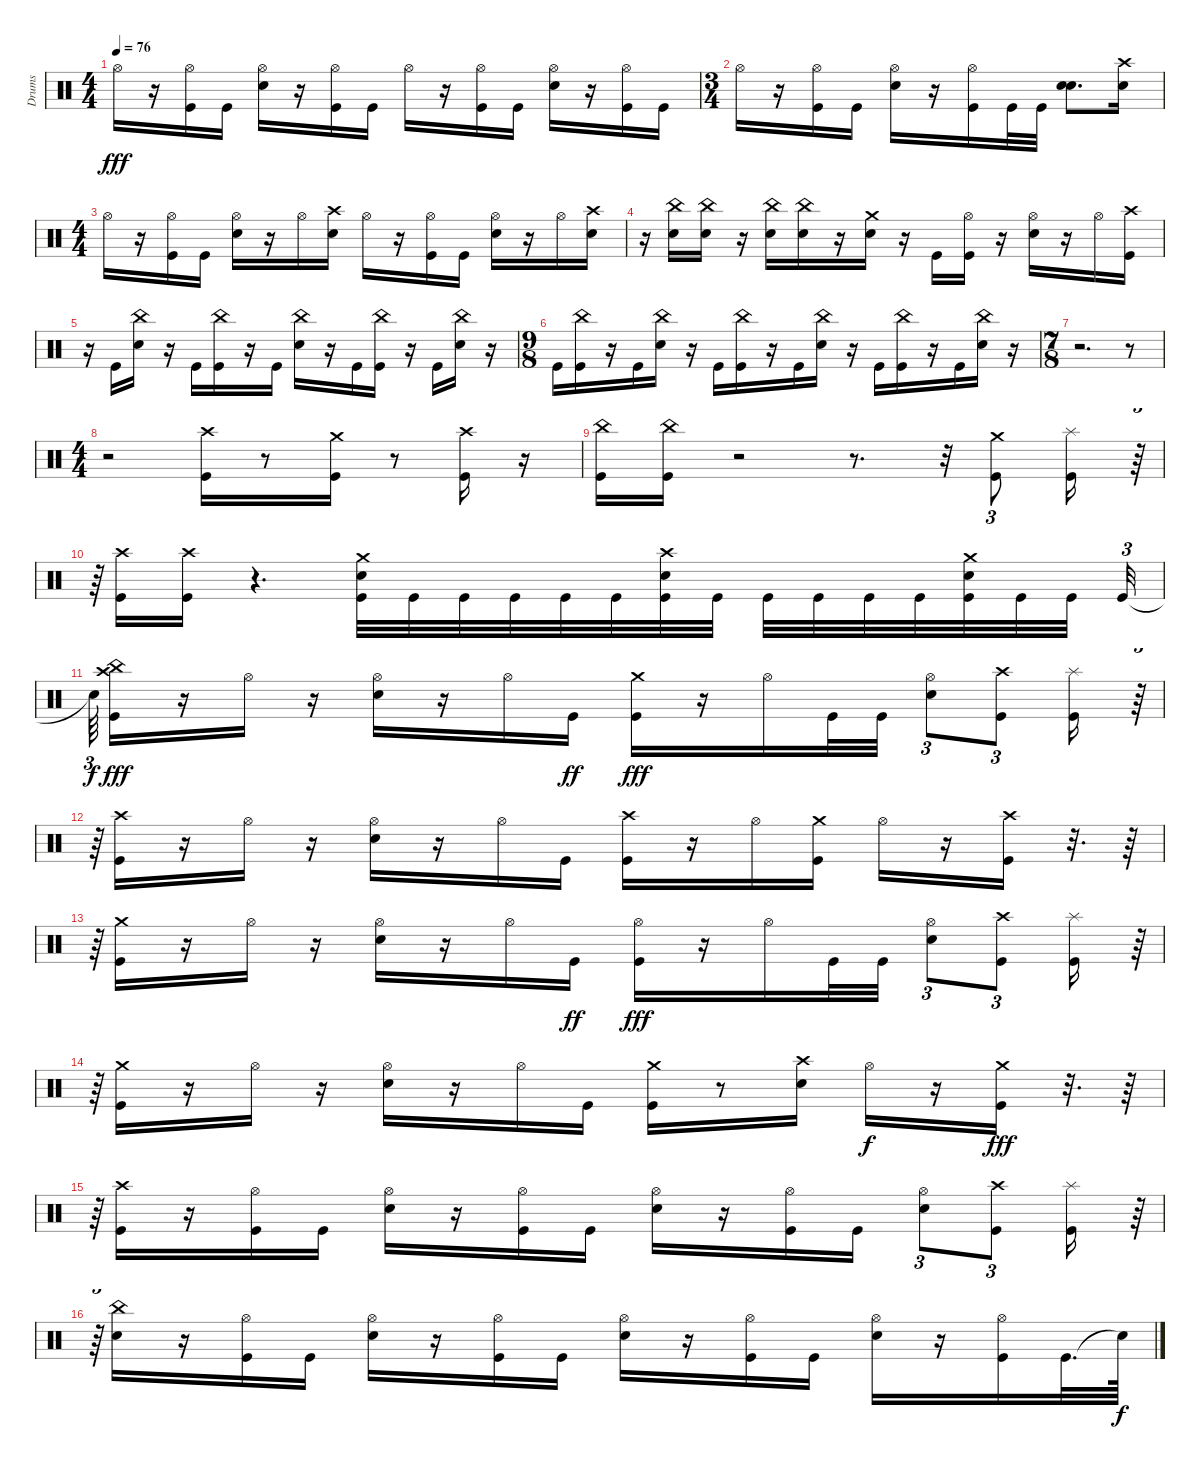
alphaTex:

\track ("Drums" "Drums") {instrument percussion}
\staff {score}
\articulation defaults
\ts (4 4)
\tempo 76
\clef neutral
\ks c "Hi-Hat (open)".16{dy fff}
r.16 ("Kick (hit)" "Hi-Hat (open)").16 "Kick (hit)".16 ("Electric Snare (hit)" "Hi-Hat (open)").16 r.16 ("Kick (hit)" "Hi-Hat (open)").16 "Kick (hit)".16 "Hi-Hat (open)".16 r.16 ("Kick (hit)" "Hi-Hat (open)").16 "Kick (hit)".16 ("Electric Snare (hit)" "Hi-Hat (open)").16 r.16 ("Kick (hit)" "Hi-Hat (open)").16 "Kick (hit)".16 |
\ts (3 4)
"Hi-Hat (open)".16 r.16 ("Kick (hit)" "Hi-Hat (open)").16 "Kick (hit)".16 ("Electric Snare (hit)" "Hi-Hat (open)").16 r.16 ("Kick (hit)" "Hi-Hat (open)").16 "Kick (hit)".32 "Kick (hit)".32 ("Electric Snare (hit)" "Electric Snare (hit)").8{d} ("Crash high (hit)" "Electric Snare (hit)").16 |
\ts (4 4)
"Hi-Hat (open)".16 r.16 ("Hi-Hat (open)" "Kick (hit)").16 "Kick (hit)".16 ("Hi-Hat (open)" "Electric Snare (hit)").16 r.16 "Hi-Hat (open)".16 ("Crash high (hit)" "Electric Snare (hit)").16 "Hi-Hat (open)".16 r.16 ("Kick (hit)" "Hi-Hat (open)").16 "Kick (hit)".16 ("Electric Snare (hit)" "Hi-Hat (open)").16 r.16 "Hi-Hat (open)".16 ("Crash high (hit)" "Electric Snare (hit)").16 |
r.16 ("China (hit)" "Electric Snare (hit)").16 ("China (hit)" "Electric Snare (hit)").16 r.16 ("China (hit)" "Electric Snare (hit)").16 ("China (hit)" "Electric Snare (hit)").16 r.16 ("Crash medium (hit)" "Electric Snare (hit)").16 r.16 "Kick (hit)".16 ("Kick (hit)" "Hi-Hat (open)").16 r.16 ("Electric Snare (hit)" "Hi-Hat (open)").16 r.16 "Hi-Hat (open)".16 ("Crash high (hit)" "Kick (hit)").16 |
r.16 "Kick (hit)".16 ("Electric Snare (hit)" "China (hit)").16 r.16 "Kick (hit)".16 ("China (hit)" "Kick (hit)").16 r.16 "Kick (hit)".16 ("China (hit)" "Electric Snare (hit)").16 r.16 "Kick (hit)".16 ("China (hit)" "Kick (hit)").16 r.16 "Kick (hit)".16 ("Electric Snare (hit)" "China (hit)").16 r.16 |
\ts (9 8)
"Kick (hit)".16 ("China (hit)" "Kick (hit)").16 r.16 "Kick (hit)".16 ("Electric Snare (hit)" "China (hit)").16 r.16 "Kick (hit)".16 ("Kick (hit)" "China (hit)").16 r.16 "Kick (hit)".16 ("Electric Snare (hit)" "China (hit)").16 r.16 "Kick (hit)".16 ("Kick (hit)" "China (hit)").16 r.16 "Kick (hit)".16 ("Electric Snare (hit)" "China (hit)").16 r.16 |
\ts (7 8)
r.2{d} r.8 |
\ts (4 4)
r.2 ("Crash high (hit)" "Kick (hit)").16{volume 16} r.8 ("Crash medium (hit)" "Kick (hit)").16 r.8 ("Crash high (hit)" "Kick (hit)").16 r.16 |
("Kick (hit)" "China (hit)").16 ("Kick (hit)" "China (hit)").16 r.2 r.8{d} r.32 ("Crash medium (hit)" "Kick (hit)").8{tu (3 2)} ("Splash (hit)" "Kick (hit)").16 r.64{tu (3 2)} |
r.64{tu (3 2)} ("Crash high (hit)" "Kick (hit)").16 ("Crash high (hit)" "Kick (hit)").16 r.4{d} ("Crash medium (hit)" "Electric Snare (hit)" "Kick (hit)").32{volume 16} "Kick (hit)".32 "Kick (hit)".32 "Kick (hit)".32 "Kick (hit)".32 "Kick (hit)".32 ("Crash high (hit)" "Electric Snare (hit)" "Kick (hit)").32 "Kick (hit)".32 "Kick (hit)".32 "Kick (hit)".32 "Kick (hit)".32 "Kick (hit)".32 ("Crash medium (hit)" "Electric Snare (hit)" "Kick (hit)").32 "Kick (hit)".32 "Kick (hit)".32 "Kick (hit)".32{tu (3 2)} |
"Snare (hit)"{t}.64{tu (3 2) dy f} ("China (hit)" "Kick (hit)" "Crash high (hit)").16{dy fff} r.16 "Hi-Hat (open)".16 r.16 ("Hi-Hat (open)" "Electric Snare (hit)").16 r.16 "Hi-Hat (open)".16 "Kick (hit)".16{dy ff} ("Crash medium (hit)" "Kick (hit)").16{dy fff} r.16 "Hi-Hat (open)".16 "Kick (hit)".32 "Kick (hit)".32 ("Hi-Hat (open)" "Electric Snare (hit)").8{tu (3 2)} ("Kick (hit)" "Crash high (hit)").8{tu (3 2)} ("Kick (hit)" "Splash (hit)").16 r.64{tu (3 2)} |
r.64{tu (3 2)} ("Crash high (hit)" "Kick (hit)").16 r.16 "Hi-Hat (open)".16 r.16 ("Hi-Hat (open)" "Electric Snare (hit)").16 r.16 "Hi-Hat (open)".16 "Kick (hit)".16 ("Crash high (hit)" "Kick (hit)").16 r.16 "Hi-Hat (open)".16 ("Kick (hit)" "Crash medium (hit)").16 "Hi-Hat (open)".16 r.16 ("Crash high (hit)" "Kick (hit)").16 r.32{d} r.64 |
r.64{tu (3 2)} ("Kick (hit)" "Crash medium (hit)").16 r.16 "Hi-Hat (open)".16 r.16 ("Electric Snare (hit)" "Hi-Hat (open)").16 r.16 "Hi-Hat (open)".16 "Kick (hit)".16{dy ff} ("Kick (hit)" "Hi-Hat (open)").16{dy fff} r.16 "Hi-Hat (open)".16 "Kick (hit)".32 "Kick (hit)".32 ("Electric Snare (hit)" "Hi-Hat (open)").8{tu (3 2)} ("Crash high (hit)" "Kick (hit)").8{tu (3 2)} ("Splash (hit)" "Kick (hit)").16 r.64{tu (3 2)} |
r.64{tu (3 2)} ("Crash medium (hit)" "Kick (hit)").16 r.16 "Hi-Hat (open)".16 r.16 ("Electric Snare (hit)" "Hi-Hat (open)").16 r.16 "Hi-Hat (open)".16 "Kick (hit)".16 ("Crash medium (hit)" "Kick (hit)").16 r.8 ("Crash high (hit)" "Electric Snare (hit)").16 "Hi-Hat (open)".16{dy f} r.16 ("Crash medium (hit)" "Kick (hit)").16{dy fff} r.32{d} r.64 |
r.64{tu (3 2)} ("Kick (hit)" "Crash high (hit)").16 r.16 ("Kick (hit)" "Hi-Hat (open)").16 "Kick (hit)".16 ("Electric Snare (hit)" "Hi-Hat (open)").16 r.16 ("Kick (hit)" "Hi-Hat (open)").16 "Kick (hit)".16 ("Electric Snare (hit)" "Hi-Hat (open)").16 r.16 ("Kick (hit)" "Hi-Hat (open)").16 "Kick (hit)".16 ("Electric Snare (hit)" "Hi-Hat (open)").8{tu (3 2)} ("Crash high (hit)" "Kick (hit)").8{tu (3 2)} ("Splash (hit)" "Kick (hit)").16 r.64{tu (3 2)} |
r.64{tu (3 2)} ("Electric Snare (hit)" "China (hit)").16 r.16 ("Kick (hit)" "Hi-Hat (open)").16 "Kick (hit)".16 ("Electric Snare (hit)" "Hi-Hat (open)").16 r.16 ("Kick (hit)" "Hi-Hat (open)").16 "Kick (hit)".16 ("Electric Snare (hit)" "Hi-Hat (open)").16 r.16 ("Kick (hit)" "Hi-Hat (open)").16 "Kick (hit)".16 ("Electric Snare (hit)" "Hi-Hat (open)").16 r.16 ("Kick (hit)" "Hi-Hat (open)").16 "Kick (hit)".32{d} "Snare (hit)"{t}.64{dy f}
